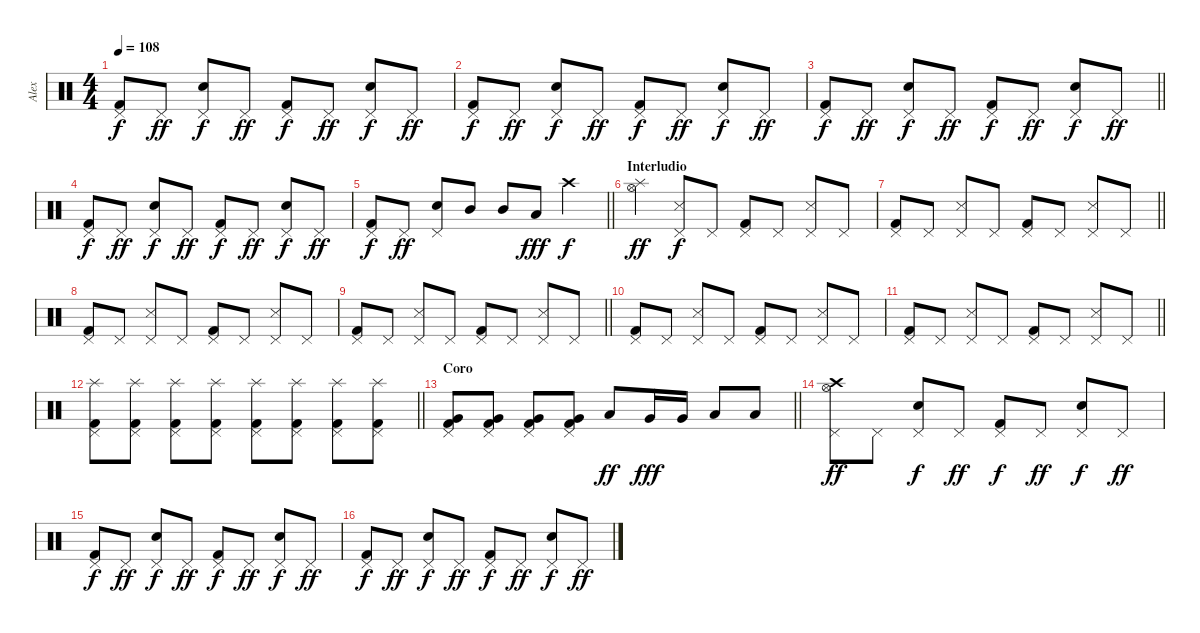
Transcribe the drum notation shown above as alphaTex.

\track ("Alex" "Alex") {instrument percussion}
\staff {score}
\articulation defaults
\ts (4 4)
\tempo 108
\clef neutral
\ks c
("Kick (hit) 2" "Pedal Hi-Hat (hit)").8{dy f} "Pedal Hi-Hat (hit)".8{dy ff} ("Electric Snare (hit)" "Pedal Hi-Hat (hit)").8{dy f} "Pedal Hi-Hat (hit)".8{dy ff} ("Kick (hit) 2" "Pedal Hi-Hat (hit)").8{dy f} "Pedal Hi-Hat (hit)".8{dy ff} ("Electric Snare (hit)" "Pedal Hi-Hat (hit)").8{dy f} "Pedal Hi-Hat (hit)".8{dy ff} |
("Kick (hit) 2" "Pedal Hi-Hat (hit)").8{dy f} "Pedal Hi-Hat (hit)".8{dy ff} ("Electric Snare (hit)" "Pedal Hi-Hat (hit)").8{dy f} "Pedal Hi-Hat (hit)".8{dy ff} ("Kick (hit) 2" "Pedal Hi-Hat (hit)").8{dy f} "Pedal Hi-Hat (hit)".8{dy ff} ("Electric Snare (hit)" "Pedal Hi-Hat (hit)").8{dy f} "Pedal Hi-Hat (hit)".8{dy ff} |
\barLineRight lightlight
("Kick (hit) 2" "Pedal Hi-Hat (hit)").8{dy f} "Pedal Hi-Hat (hit)".8{dy ff} ("Electric Snare (hit)" "Pedal Hi-Hat (hit)").8{dy f} "Pedal Hi-Hat (hit)".8{dy ff} ("Kick (hit) 2" "Pedal Hi-Hat (hit)").8{dy f} "Pedal Hi-Hat (hit)".8{dy ff} ("Electric Snare (hit)" "Pedal Hi-Hat (hit)").8{dy f} "Pedal Hi-Hat (hit)".8{dy ff} |
("Kick (hit) 2" "Pedal Hi-Hat (hit)").8{dy f} "Pedal Hi-Hat (hit)".8{dy ff} ("Electric Snare (hit)" "Pedal Hi-Hat (hit)").8{dy f} "Pedal Hi-Hat (hit)".8{dy ff} ("Kick (hit) 2" "Pedal Hi-Hat (hit)").8{dy f} "Pedal Hi-Hat (hit)".8{dy ff} ("Electric Snare (hit)" "Pedal Hi-Hat (hit)").8{dy f} "Pedal Hi-Hat (hit)".8{dy ff} |
\barLineRight lightlight
("Kick (hit) 2" "Pedal Hi-Hat (hit)").8{dy f} "Pedal Hi-Hat (hit)".8{dy ff} ("Electric Snare (hit)" "Pedal Hi-Hat (hit)").8 "Mid Tom (hit)".8 "Mid Tom (hit)".8 "Low Tom (hit)".8{dy fff} "Crash high (hit)".4{dy f} |
\section ("" "Interludio")
("Splash (hit)" "Hi-Hat (open)").4{dy ff} ("Snare (side stick) 3" "Pedal Hi-Hat (hit)").8{dy f} "Pedal Hi-Hat (hit)".8 ("Kick (hit) 2" "Pedal Hi-Hat (hit)").8 "Pedal Hi-Hat (hit)".8 ("Snare (side stick) 3" "Pedal Hi-Hat (hit)").8 "Pedal Hi-Hat (hit)".8 |
\barLineRight lightlight
("Kick (hit) 2" "Pedal Hi-Hat (hit)").8 "Pedal Hi-Hat (hit)".8 ("Snare (side stick) 3" "Pedal Hi-Hat (hit)").8 "Pedal Hi-Hat (hit)".8 ("Kick (hit) 2" "Pedal Hi-Hat (hit)").8 "Pedal Hi-Hat (hit)".8 ("Snare (side stick) 3" "Pedal Hi-Hat (hit)").8 "Pedal Hi-Hat (hit)".8 |
("Kick (hit) 2" "Pedal Hi-Hat (hit)").8 "Pedal Hi-Hat (hit)".8 ("Snare (side stick) 3" "Pedal Hi-Hat (hit)").8 "Pedal Hi-Hat (hit)".8 ("Kick (hit) 2" "Pedal Hi-Hat (hit)").8 "Pedal Hi-Hat (hit)".8 ("Snare (side stick) 3" "Pedal Hi-Hat (hit)").8 "Pedal Hi-Hat (hit)".8 |
\barLineRight lightlight
("Kick (hit) 2" "Pedal Hi-Hat (hit)").8 "Pedal Hi-Hat (hit)".8 ("Snare (side stick) 3" "Pedal Hi-Hat (hit)").8 "Pedal Hi-Hat (hit)".8 ("Kick (hit) 2" "Pedal Hi-Hat (hit)").8 "Pedal Hi-Hat (hit)".8 ("Snare (side stick) 3" "Pedal Hi-Hat (hit)").8 "Pedal Hi-Hat (hit)".8 |
("Kick (hit) 2" "Pedal Hi-Hat (hit)").8 "Pedal Hi-Hat (hit)".8 ("Snare (side stick) 3" "Pedal Hi-Hat (hit)").8 "Pedal Hi-Hat (hit)".8 ("Kick (hit) 2" "Pedal Hi-Hat (hit)").8 "Pedal Hi-Hat (hit)".8 ("Snare (side stick) 3" "Pedal Hi-Hat (hit)").8 "Pedal Hi-Hat (hit)".8 |
\barLineRight lightlight
("Kick (hit) 2" "Pedal Hi-Hat (hit)").8 "Pedal Hi-Hat (hit)".8 ("Snare (side stick) 3" "Pedal Hi-Hat (hit)").8 "Pedal Hi-Hat (hit)".8 ("Kick (hit) 2" "Pedal Hi-Hat (hit)").8 "Pedal Hi-Hat (hit)".8 ("Snare (side stick) 3" "Pedal Hi-Hat (hit)").8 "Pedal Hi-Hat (hit)".8 |
\barLineRight lightlight
("Splash (hit)" "Kick (hit) 2" "Pedal Hi-Hat (hit)").8 ("Splash (hit)" "Kick (hit) 2" "Pedal Hi-Hat (hit)").8 ("Splash (hit)" "Kick (hit) 2" "Pedal Hi-Hat (hit)").8 ("Splash (hit)" "Kick (hit) 2" "Pedal Hi-Hat (hit)").8 ("Splash (hit)" "Kick (hit) 2" "Pedal Hi-Hat (hit)").8 ("Splash (hit)" "Kick (hit) 2" "Pedal Hi-Hat (hit)").8 ("Splash (hit)" "Kick (hit) 2" "Pedal Hi-Hat (hit)").8 ("Splash (hit)" "Kick (hit) 2" "Pedal Hi-Hat (hit)").8 |
\section ("" "Coro")
\barLineRight lightlight
("Kick (hit) 2" "Very Low Tom (hit)" "Pedal Hi-Hat (hit)").8 ("Kick (hit) 2" "Very Low Tom (hit)" "Pedal Hi-Hat (hit)").8 ("Kick (hit) 2" "Very Low Tom (hit)" "Pedal Hi-Hat (hit)").8 ("Kick (hit) 2" "Very Low Tom (hit)" "Pedal Hi-Hat (hit)").8 "Low Tom (hit)".8{dy ff} "Very Low Tom (hit)".16{dy fff} "Very Low Tom (hit)".16 "Low Floor Tom (hit)".8 "Low Floor Tom (hit)".8 |
("Hi-Hat (open)" "Crash high (hit)" "Pedal Hi-Hat (hit)").8{dy ff} "Pedal Hi-Hat (hit)".8 ("Electric Snare (hit)" "Pedal Hi-Hat (hit)").8{dy f} "Pedal Hi-Hat (hit)".8{dy ff} ("Kick (hit) 2" "Pedal Hi-Hat (hit)").8{dy f} "Pedal Hi-Hat (hit)".8{dy ff} ("Electric Snare (hit)" "Pedal Hi-Hat (hit)").8{dy f} "Pedal Hi-Hat (hit)".8{dy ff} |
("Kick (hit) 2" "Pedal Hi-Hat (hit)").8{dy f} "Pedal Hi-Hat (hit)".8{dy ff} ("Electric Snare (hit)" "Pedal Hi-Hat (hit)").8{dy f} "Pedal Hi-Hat (hit)".8{dy ff} ("Kick (hit) 2" "Pedal Hi-Hat (hit)").8{dy f} "Pedal Hi-Hat (hit)".8{dy ff} ("Electric Snare (hit)" "Pedal Hi-Hat (hit)").8{dy f} "Pedal Hi-Hat (hit)".8{dy ff} |
("Kick (hit) 2" "Pedal Hi-Hat (hit)").8{dy f} "Pedal Hi-Hat (hit)".8{dy ff} ("Electric Snare (hit)" "Pedal Hi-Hat (hit)").8{dy f} "Pedal Hi-Hat (hit)".8{dy ff} ("Kick (hit) 2" "Pedal Hi-Hat (hit)").8{dy f} "Pedal Hi-Hat (hit)".8{dy ff} ("Electric Snare (hit)" "Pedal Hi-Hat (hit)").8{dy f} "Pedal Hi-Hat (hit)".8{dy ff}
